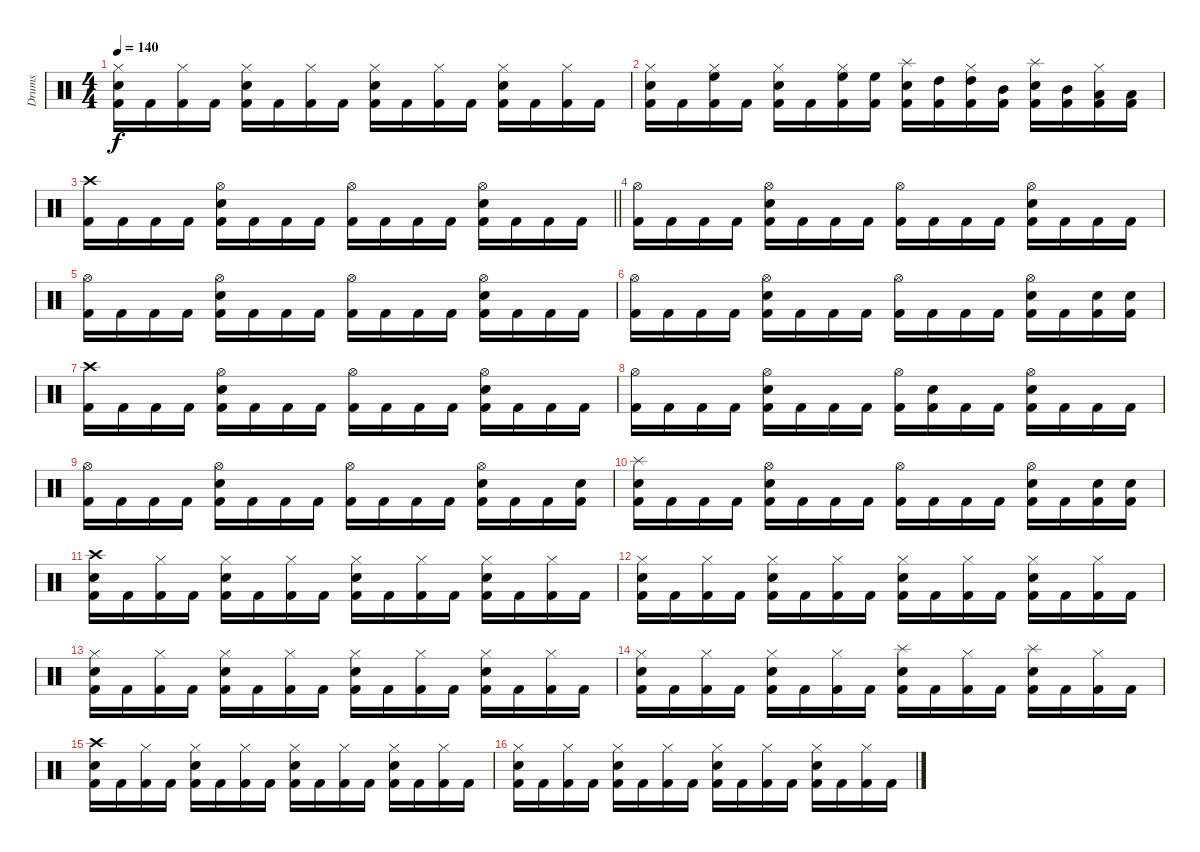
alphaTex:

\track ("Drums" "Drums") {instrument percussion}
\staff {score}
\articulation defaults
\ts (4 4)
\tempo 140
\clef neutral
\ks c
("Kick (hit) 2" "Electric Snare (hit)" "Hi-Hat (closed)").16{dy f} "Kick (hit) 2".16 ("Kick (hit) 2" "Hi-Hat (closed)").16 "Kick (hit) 2".16 ("Kick (hit) 2" "Electric Snare (hit)" "Hi-Hat (closed)").16 "Kick (hit) 2".16 ("Kick (hit) 2" "Hi-Hat (closed)").16 "Kick (hit) 2".16 ("Kick (hit) 2" "Electric Snare (hit)" "Hi-Hat (closed)").16 "Kick (hit) 2".16 ("Kick (hit) 2" "Hi-Hat (closed)").16 "Kick (hit) 2".16 ("Kick (hit) 2" "Electric Snare (hit)" "Hi-Hat (closed)").16 "Kick (hit) 2".16 ("Kick (hit) 2" "Hi-Hat (closed)").16 "Kick (hit) 2".16 |
("Kick (hit) 2" "Electric Snare (hit)" "Hi-Hat (closed)").16 "Kick (hit) 2".16 ("Kick (hit) 2" "Hi-Hat (closed)" "High Floor Tom (hit)").16 "Kick (hit) 2".16 ("Kick (hit) 2" "Electric Snare (hit)" "Hi-Hat (closed)").16 "Kick (hit) 2".16 ("Kick (hit) 2" "Hi-Hat (closed)" "High Floor Tom (hit)").16 ("Kick (hit) 2" "High Floor Tom (hit)").16 ("Kick (hit) 2" "Electric Snare (hit)" "Splash (hit)").16 ("Kick (hit) 2" "High Tom (hit)").16 ("Kick (hit) 2" "Hi-Hat (closed)" "High Tom (hit)").16 ("Kick (hit) 2" "Mid Tom (hit)").16 ("Kick (hit) 2" "Electric Snare (hit)" "Splash (hit)").16 ("Kick (hit) 2" "Mid Tom (hit)").16 ("Kick (hit) 2" "Hi-Hat (closed)" "Low Tom (hit)").16 ("Kick (hit) 2" "Low Tom (hit)").16 |
\barLineRight lightlight
("Kick (hit) 2" "Crash high (hit)").16 "Kick (hit) 2".16 "Kick (hit) 2".16 "Kick (hit) 2".16 ("Kick (hit) 2" "Electric Snare (hit)" "Hi-Hat (open)").16 "Kick (hit) 2".16 "Kick (hit) 2".16 "Kick (hit) 2".16 ("Kick (hit) 2" "Hi-Hat (open)").16 "Kick (hit) 2".16 "Kick (hit) 2".16 "Kick (hit) 2".16 ("Kick (hit) 2" "Electric Snare (hit)" "Hi-Hat (open)").16 "Kick (hit) 2".16 "Kick (hit) 2".16 "Kick (hit) 2".16 |
("Kick (hit) 2" "Hi-Hat (open)").16 "Kick (hit) 2".16 "Kick (hit) 2".16 "Kick (hit) 2".16 ("Kick (hit) 2" "Electric Snare (hit)" "Hi-Hat (open)").16 "Kick (hit) 2".16 "Kick (hit) 2".16 "Kick (hit) 2".16 ("Kick (hit) 2" "Hi-Hat (open)").16 "Kick (hit) 2".16 "Kick (hit) 2".16 "Kick (hit) 2".16 ("Kick (hit) 2" "Electric Snare (hit)" "Hi-Hat (open)").16 "Kick (hit) 2".16 "Kick (hit) 2".16 "Kick (hit) 2".16 |
("Kick (hit) 2" "Hi-Hat (open)").16 "Kick (hit) 2".16 "Kick (hit) 2".16 "Kick (hit) 2".16 ("Kick (hit) 2" "Electric Snare (hit)" "Hi-Hat (open)").16 "Kick (hit) 2".16 "Kick (hit) 2".16 "Kick (hit) 2".16 ("Kick (hit) 2" "Hi-Hat (open)").16 "Kick (hit) 2".16 "Kick (hit) 2".16 "Kick (hit) 2".16 ("Kick (hit) 2" "Electric Snare (hit)" "Hi-Hat (open)").16 "Kick (hit) 2".16 "Kick (hit) 2".16 "Kick (hit) 2".16 |
("Kick (hit) 2" "Hi-Hat (open)").16 "Kick (hit) 2".16 "Kick (hit) 2".16 "Kick (hit) 2".16 ("Kick (hit) 2" "Electric Snare (hit)" "Hi-Hat (open)").16 "Kick (hit) 2".16 "Kick (hit) 2".16 "Kick (hit) 2".16 ("Kick (hit) 2" "Hi-Hat (open)").16 "Kick (hit) 2".16 "Kick (hit) 2".16 "Kick (hit) 2".16 ("Kick (hit) 2" "Electric Snare (hit)" "Hi-Hat (open)").16 "Kick (hit) 2".16 ("Kick (hit) 2" "Electric Snare (hit)").16 ("Kick (hit) 2" "Electric Snare (hit)").16 |
("Kick (hit) 2" "Crash high (hit)").16 "Kick (hit) 2".16 "Kick (hit) 2".16 "Kick (hit) 2".16 ("Kick (hit) 2" "Electric Snare (hit)" "Hi-Hat (open)").16 "Kick (hit) 2".16 "Kick (hit) 2".16 "Kick (hit) 2".16 ("Kick (hit) 2" "Hi-Hat (open)").16 "Kick (hit) 2".16 "Kick (hit) 2".16 "Kick (hit) 2".16 ("Kick (hit) 2" "Electric Snare (hit)" "Hi-Hat (open)").16 "Kick (hit) 2".16 "Kick (hit) 2".16 "Kick (hit) 2".16 |
("Kick (hit) 2" "Hi-Hat (open)").16 "Kick (hit) 2".16 "Kick (hit) 2".16 "Kick (hit) 2".16 ("Kick (hit) 2" "Electric Snare (hit)" "Hi-Hat (open)").16 "Kick (hit) 2".16 "Kick (hit) 2".16 "Kick (hit) 2".16 ("Kick (hit) 2" "Hi-Hat (open)").16 ("Kick (hit) 2" "Electric Snare (hit)").16 "Kick (hit) 2".16 "Kick (hit) 2".16 ("Kick (hit) 2" "Electric Snare (hit)" "Hi-Hat (open)").16 "Kick (hit) 2".16 "Kick (hit) 2".16 "Kick (hit) 2".16 |
("Kick (hit) 2" "Hi-Hat (open)").16 "Kick (hit) 2".16 "Kick (hit) 2".16 "Kick (hit) 2".16 ("Kick (hit) 2" "Electric Snare (hit)" "Hi-Hat (open)").16 "Kick (hit) 2".16 "Kick (hit) 2".16 "Kick (hit) 2".16 ("Kick (hit) 2" "Hi-Hat (open)").16 "Kick (hit) 2".16 "Kick (hit) 2".16 "Kick (hit) 2".16 ("Kick (hit) 2" "Electric Snare (hit)" "Hi-Hat (open)").16 "Kick (hit) 2".16 "Kick (hit) 2".16 ("Kick (hit) 2" "Electric Snare (hit)").16 |
("Kick (hit) 2" "Electric Snare (hit)" "Splash (hit)").16 "Kick (hit) 2".16 "Kick (hit) 2".16 "Kick (hit) 2".16 ("Kick (hit) 2" "Electric Snare (hit)" "Hi-Hat (open)").16 "Kick (hit) 2".16 "Kick (hit) 2".16 "Kick (hit) 2".16 ("Kick (hit) 2" "Hi-Hat (open)").16 "Kick (hit) 2".16 "Kick (hit) 2".16 "Kick (hit) 2".16 ("Kick (hit) 2" "Electric Snare (hit)" "Hi-Hat (open)").16 "Kick (hit) 2".16 ("Kick (hit) 2" "Electric Snare (hit)").16 ("Kick (hit) 2" "Electric Snare (hit)").16 |
("Kick (hit) 2" "Electric Snare (hit)" "Crash high (hit)").16 "Kick (hit) 2".16 ("Kick (hit) 2" "Hi-Hat (closed)").16 "Kick (hit) 2".16 ("Kick (hit) 2" "Electric Snare (hit)" "Hi-Hat (closed)").16 "Kick (hit) 2".16 ("Kick (hit) 2" "Hi-Hat (closed)").16 "Kick (hit) 2".16 ("Kick (hit) 2" "Electric Snare (hit)" "Hi-Hat (closed)").16 "Kick (hit) 2".16 ("Kick (hit) 2" "Hi-Hat (closed)").16 "Kick (hit) 2".16 ("Kick (hit) 2" "Electric Snare (hit)" "Hi-Hat (closed)").16 "Kick (hit) 2".16 ("Kick (hit) 2" "Hi-Hat (closed)").16 "Kick (hit) 2".16 |
("Kick (hit) 2" "Electric Snare (hit)" "Hi-Hat (closed)").16 "Kick (hit) 2".16 ("Kick (hit) 2" "Hi-Hat (closed)").16 "Kick (hit) 2".16 ("Kick (hit) 2" "Electric Snare (hit)" "Hi-Hat (closed)").16 "Kick (hit) 2".16 ("Kick (hit) 2" "Hi-Hat (closed)").16 "Kick (hit) 2".16 ("Kick (hit) 2" "Electric Snare (hit)" "Hi-Hat (closed)").16 "Kick (hit) 2".16 ("Kick (hit) 2" "Hi-Hat (closed)").16 "Kick (hit) 2".16 ("Kick (hit) 2" "Electric Snare (hit)" "Hi-Hat (closed)").16 "Kick (hit) 2".16 ("Kick (hit) 2" "Hi-Hat (closed)").16 "Kick (hit) 2".16 |
("Kick (hit) 2" "Electric Snare (hit)" "Hi-Hat (closed)").16 "Kick (hit) 2".16 ("Kick (hit) 2" "Hi-Hat (closed)").16 "Kick (hit) 2".16 ("Kick (hit) 2" "Electric Snare (hit)" "Hi-Hat (closed)").16 "Kick (hit) 2".16 ("Kick (hit) 2" "Hi-Hat (closed)").16 "Kick (hit) 2".16 ("Kick (hit) 2" "Electric Snare (hit)" "Hi-Hat (closed)").16 "Kick (hit) 2".16 ("Kick (hit) 2" "Hi-Hat (closed)").16 "Kick (hit) 2".16 ("Kick (hit) 2" "Electric Snare (hit)" "Hi-Hat (closed)").16 "Kick (hit) 2".16 ("Kick (hit) 2" "Hi-Hat (closed)").16 "Kick (hit) 2".16 |
("Kick (hit) 2" "Electric Snare (hit)" "Hi-Hat (closed)").16 "Kick (hit) 2".16 ("Kick (hit) 2" "Hi-Hat (closed)").16 "Kick (hit) 2".16 ("Kick (hit) 2" "Electric Snare (hit)" "Hi-Hat (closed)").16 "Kick (hit) 2".16 ("Kick (hit) 2" "Hi-Hat (closed)").16 "Kick (hit) 2".16 ("Kick (hit) 2" "Electric Snare (hit)" "Splash (hit)").16 "Kick (hit) 2".16 ("Kick (hit) 2" "Hi-Hat (closed)").16 "Kick (hit) 2".16 ("Kick (hit) 2" "Electric Snare (hit)" "Splash (hit)").16 "Kick (hit) 2".16 ("Kick (hit) 2" "Hi-Hat (closed)").16 "Kick (hit) 2".16 |
("Kick (hit) 2" "Electric Snare (hit)" "Crash high (hit)").16 "Kick (hit) 2".16 ("Kick (hit) 2" "Hi-Hat (closed)").16 "Kick (hit) 2".16 ("Kick (hit) 2" "Electric Snare (hit)" "Hi-Hat (closed)").16 "Kick (hit) 2".16 ("Kick (hit) 2" "Hi-Hat (closed)").16 "Kick (hit) 2".16 ("Kick (hit) 2" "Electric Snare (hit)" "Hi-Hat (closed)").16 "Kick (hit) 2".16 ("Kick (hit) 2" "Hi-Hat (closed)").16 "Kick (hit) 2".16 ("Kick (hit) 2" "Electric Snare (hit)" "Hi-Hat (closed)").16 "Kick (hit) 2".16 ("Kick (hit) 2" "Hi-Hat (closed)").16 "Kick (hit) 2".16 |
("Kick (hit) 2" "Electric Snare (hit)" "Hi-Hat (closed)").16 "Kick (hit) 2".16 ("Kick (hit) 2" "Hi-Hat (closed)").16 "Kick (hit) 2".16 ("Kick (hit) 2" "Electric Snare (hit)" "Hi-Hat (closed)").16 "Kick (hit) 2".16 ("Kick (hit) 2" "Hi-Hat (closed)").16 "Kick (hit) 2".16 ("Kick (hit) 2" "Electric Snare (hit)" "Hi-Hat (closed)").16 "Kick (hit) 2".16 ("Kick (hit) 2" "Hi-Hat (closed)").16 "Kick (hit) 2".16 ("Kick (hit) 2" "Electric Snare (hit)" "Hi-Hat (closed)").16 "Kick (hit) 2".16 ("Kick (hit) 2" "Hi-Hat (closed)").16 "Kick (hit) 2".16
